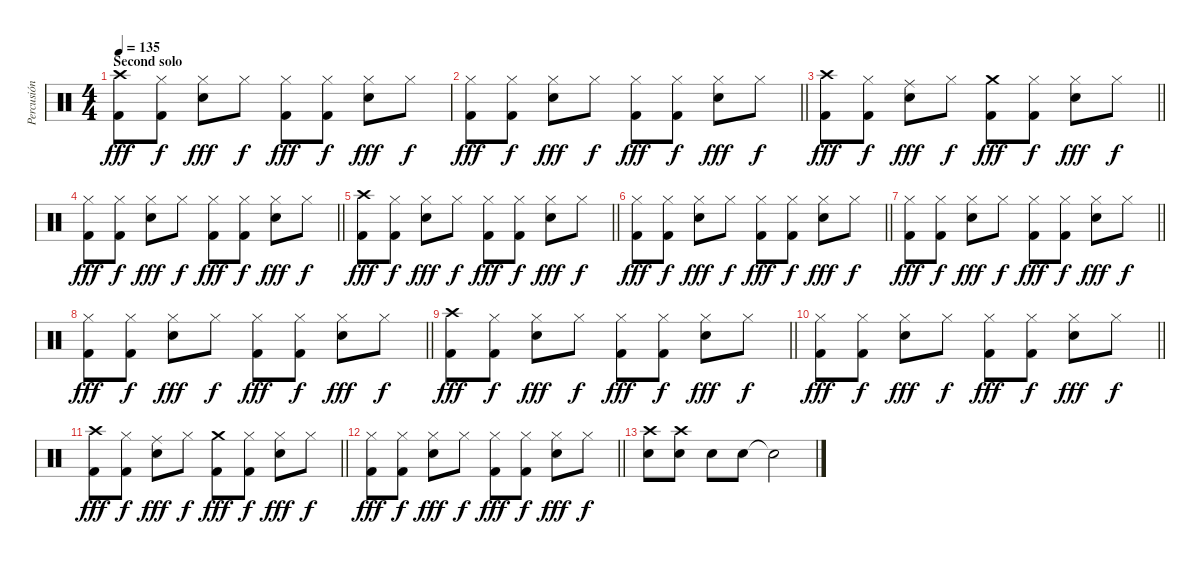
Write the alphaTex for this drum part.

\track ("Percusión" "Percusión") {instrument percussion}
\staff {score}
\articulation defaults
\ts (4 4)
\section ("" "Second solo")
\tempo 135
\clef neutral
\ks c
("Crash high (hit)" "Kick (hit) 2").8{dy fff} ("Hi-Hat (closed)" "Kick (hit) 2").8{dy f} ("Hi-Hat (closed)" "Electric Snare (hit)").8{dy fff} "Hi-Hat (closed)".8{dy f} ("Hi-Hat (closed)" "Kick (hit) 2").8{dy fff} ("Hi-Hat (closed)" "Kick (hit) 2").8{dy f} ("Hi-Hat (closed)" "Electric Snare (hit)").8{dy fff} "Hi-Hat (closed)".8{dy f} |
\barLineRight lightlight
("Hi-Hat (closed)" "Kick (hit) 2").8{dy fff} ("Hi-Hat (closed)" "Kick (hit) 2").8{dy f} ("Hi-Hat (closed)" "Electric Snare (hit)").8{dy fff} "Hi-Hat (closed)".8{dy f} ("Hi-Hat (closed)" "Kick (hit) 2").8{dy fff} ("Hi-Hat (closed)" "Kick (hit) 2").8{dy f} ("Hi-Hat (closed)" "Electric Snare (hit)").8{dy fff} "Hi-Hat (closed)".8{dy f} |
\barLineRight lightlight
("Crash high (hit)" "Kick (hit) 2").8{dy fff} ("Hi-Hat (closed)" "Kick (hit) 2").8{dy f} ("Ride (middle)" "Electric Snare (hit)").8{dy fff} "Hi-Hat (closed)".8{dy f} ("Crash medium (hit)" "Kick (hit) 2").8{dy fff} ("Hi-Hat (closed)" "Kick (hit) 2").8{dy f} ("Hi-Hat (closed)" "Electric Snare (hit)").8{dy fff} "Hi-Hat (closed)".8{dy f} |
\barLineRight lightlight
("Hi-Hat (closed)" "Kick (hit) 2").8{dy fff} ("Hi-Hat (closed)" "Kick (hit) 2").8{dy f} ("Hi-Hat (closed)" "Electric Snare (hit)").8{dy fff} "Hi-Hat (closed)".8{dy f} ("Hi-Hat (closed)" "Kick (hit) 2").8{dy fff} ("Hi-Hat (closed)" "Kick (hit) 2").8{dy f} ("Hi-Hat (closed)" "Electric Snare (hit)").8{dy fff} "Hi-Hat (closed)".8{dy f} |
\section ("" "")
\barLineRight lightlight
("Crash high (hit)" "Kick (hit) 2").8{dy fff} ("Hi-Hat (closed)" "Kick (hit) 2").8{dy f} ("Hi-Hat (closed)" "Electric Snare (hit)").8{dy fff} "Hi-Hat (closed)".8{dy f} ("Hi-Hat (closed)" "Kick (hit) 2").8{dy fff} ("Hi-Hat (closed)" "Kick (hit) 2").8{dy f} ("Hi-Hat (closed)" "Electric Snare (hit)").8{dy fff} "Hi-Hat (closed)".8{dy f} |
\barLineRight lightlight
("Hi-Hat (closed)" "Kick (hit) 2").8{dy fff} ("Hi-Hat (closed)" "Kick (hit) 2").8{dy f} ("Hi-Hat (closed)" "Electric Snare (hit)").8{dy fff} "Hi-Hat (closed)".8{dy f} ("Hi-Hat (closed)" "Kick (hit) 2").8{dy fff} ("Hi-Hat (closed)" "Kick (hit) 2").8{dy f} ("Hi-Hat (closed)" "Electric Snare (hit)").8{dy fff} "Hi-Hat (closed)".8{dy f} |
\barLineRight lightlight
("Hi-Hat (closed)" "Kick (hit) 2").8{dy fff} ("Hi-Hat (closed)" "Kick (hit) 2").8{dy f} ("Hi-Hat (closed)" "Electric Snare (hit)").8{dy fff} "Hi-Hat (closed)".8{dy f} ("Hi-Hat (closed)" "Kick (hit) 2").8{dy fff} ("Hi-Hat (closed)" "Kick (hit) 2").8{dy f} ("Hi-Hat (closed)" "Electric Snare (hit)").8{dy fff} "Hi-Hat (closed)".8{dy f} |
\barLineRight lightlight
("Hi-Hat (closed)" "Kick (hit) 2").8{dy fff} ("Hi-Hat (closed)" "Kick (hit) 2").8{dy f} ("Hi-Hat (closed)" "Electric Snare (hit)").8{dy fff} "Hi-Hat (closed)".8{dy f} ("Hi-Hat (closed)" "Kick (hit) 2").8{dy fff} ("Hi-Hat (closed)" "Kick (hit) 2").8{dy f} ("Hi-Hat (closed)" "Electric Snare (hit)").8{dy fff} "Hi-Hat (closed)".8{dy f} |
\barLineRight lightlight
("Crash high (hit)" "Kick (hit) 2").8{dy fff} ("Hi-Hat (closed)" "Kick (hit) 2").8{dy f} ("Hi-Hat (closed)" "Electric Snare (hit)").8{dy fff} "Hi-Hat (closed)".8{dy f} ("Hi-Hat (closed)" "Kick (hit) 2").8{dy fff} ("Hi-Hat (closed)" "Kick (hit) 2").8{dy f} ("Hi-Hat (closed)" "Electric Snare (hit)").8{dy fff} "Hi-Hat (closed)".8{dy f} |
\barLineRight lightlight
("Hi-Hat (closed)" "Kick (hit) 2").8{dy fff} ("Hi-Hat (closed)" "Kick (hit) 2").8{dy f} ("Hi-Hat (closed)" "Electric Snare (hit)").8{dy fff} "Hi-Hat (closed)".8{dy f} ("Hi-Hat (closed)" "Kick (hit) 2").8{dy fff} ("Hi-Hat (closed)" "Kick (hit) 2").8{dy f} ("Hi-Hat (closed)" "Electric Snare (hit)").8{dy fff} "Hi-Hat (closed)".8{dy f} |
\barLineRight lightlight
("Crash high (hit)" "Kick (hit) 2").8{dy fff} ("Hi-Hat (closed)" "Kick (hit) 2").8{dy f} ("Ride (middle)" "Electric Snare (hit)").8{dy fff} "Hi-Hat (closed)".8{dy f} ("Crash medium (hit)" "Kick (hit) 2").8{dy fff} ("Hi-Hat (closed)" "Kick (hit) 2").8{dy f} ("Hi-Hat (closed)" "Electric Snare (hit)").8{dy fff} "Hi-Hat (closed)".8{dy f} |
\barLineRight lightlight
("Hi-Hat (closed)" "Kick (hit) 2").8{dy fff} ("Hi-Hat (closed)" "Kick (hit) 2").8{dy f} ("Hi-Hat (closed)" "Electric Snare (hit)").8{dy fff} "Hi-Hat (closed)".8{dy f} ("Hi-Hat (closed)" "Kick (hit) 2").8{dy fff} ("Hi-Hat (closed)" "Kick (hit) 2").8{dy f} ("Hi-Hat (closed)" "Electric Snare (hit)").8{dy fff} "Hi-Hat (closed)".8{dy f} |
("Crash high (hit)" "Electric Snare (hit)").8 ("Crash high (hit)" "Electric Snare (hit)").8 "Electric Snare (hit)".8 "Electric Snare (hit)".8 "Electric Snare (hit)"{t}.2
